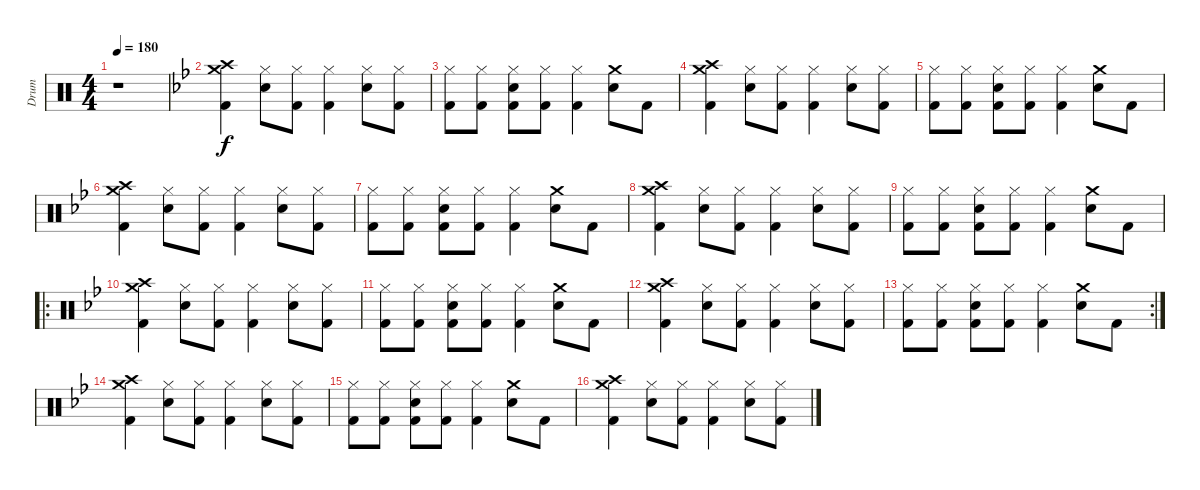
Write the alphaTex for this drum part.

\track ("Drum" "Drum") {instrument percussion}
\staff {score}
\articulation defaults
\ts (4 4)
\tempo 180
\clef neutral
\ks c
r.1{dy f} |
\ks bb
("Crash medium (hit)" "Crash high (hit)" "Kick (hit) 2").4 ("Hi-Hat (closed)" "Electric Snare (hit)").8 ("Hi-Hat (closed)" "Kick (hit) 2").8 ("Hi-Hat (closed)" "Kick (hit) 2").4 ("Hi-Hat (closed)" "Electric Snare (hit)").8 ("Hi-Hat (closed)" "Kick (hit) 2").8 |
("Hi-Hat (closed)" "Kick (hit) 2").8 ("Hi-Hat (closed)" "Kick (hit) 2").8 ("Hi-Hat (closed)" "Kick (hit) 2" "Electric Snare (hit)").8 ("Hi-Hat (closed)" "Kick (hit) 2").8 ("Hi-Hat (closed)" "Kick (hit) 2").4 ("Crash medium (hit)" "Electric Snare (hit)").8 "Kick (hit) 2".8 |
("Crash medium (hit)" "Crash high (hit)" "Kick (hit) 2").4 ("Hi-Hat (closed)" "Electric Snare (hit)").8 ("Hi-Hat (closed)" "Kick (hit) 2").8 ("Hi-Hat (closed)" "Kick (hit) 2").4 ("Hi-Hat (closed)" "Electric Snare (hit)").8 ("Hi-Hat (closed)" "Kick (hit) 2").8 |
("Hi-Hat (closed)" "Kick (hit) 2").8 ("Hi-Hat (closed)" "Kick (hit) 2").8 ("Hi-Hat (closed)" "Kick (hit) 2" "Electric Snare (hit)").8 ("Hi-Hat (closed)" "Kick (hit) 2").8 ("Hi-Hat (closed)" "Kick (hit) 2").4 ("Crash medium (hit)" "Electric Snare (hit)").8 "Kick (hit) 2".8 |
("Crash medium (hit)" "Crash high (hit)" "Kick (hit) 2").4 ("Hi-Hat (closed)" "Electric Snare (hit)").8 ("Hi-Hat (closed)" "Kick (hit) 2").8 ("Hi-Hat (closed)" "Kick (hit) 2").4 ("Hi-Hat (closed)" "Electric Snare (hit)").8 ("Hi-Hat (closed)" "Kick (hit) 2").8 |
("Hi-Hat (closed)" "Kick (hit) 2").8 ("Hi-Hat (closed)" "Kick (hit) 2").8 ("Hi-Hat (closed)" "Kick (hit) 2" "Electric Snare (hit)").8 ("Hi-Hat (closed)" "Kick (hit) 2").8 ("Hi-Hat (closed)" "Kick (hit) 2").4 ("Crash medium (hit)" "Electric Snare (hit)").8 "Kick (hit) 2".8 |
("Crash medium (hit)" "Crash high (hit)" "Kick (hit) 2").4 ("Hi-Hat (closed)" "Electric Snare (hit)").8 ("Hi-Hat (closed)" "Kick (hit) 2").8 ("Hi-Hat (closed)" "Kick (hit) 2").4 ("Hi-Hat (closed)" "Electric Snare (hit)").8 ("Hi-Hat (closed)" "Kick (hit) 2").8 |
("Hi-Hat (closed)" "Kick (hit) 2").8 ("Hi-Hat (closed)" "Kick (hit) 2").8 ("Hi-Hat (closed)" "Kick (hit) 2" "Electric Snare (hit)").8 ("Hi-Hat (closed)" "Kick (hit) 2").8 ("Hi-Hat (closed)" "Kick (hit) 2").4 ("Crash medium (hit)" "Electric Snare (hit)").8 "Kick (hit) 2".8 |
\ro
("Crash medium (hit)" "Crash high (hit)" "Kick (hit) 2").4 ("Hi-Hat (closed)" "Electric Snare (hit)").8 ("Hi-Hat (closed)" "Kick (hit) 2").8 ("Hi-Hat (closed)" "Kick (hit) 2").4 ("Hi-Hat (closed)" "Electric Snare (hit)").8 ("Hi-Hat (closed)" "Kick (hit) 2").8 |
("Hi-Hat (closed)" "Kick (hit) 2").8 ("Hi-Hat (closed)" "Kick (hit) 2").8 ("Hi-Hat (closed)" "Kick (hit) 2" "Electric Snare (hit)").8 ("Hi-Hat (closed)" "Kick (hit) 2").8 ("Hi-Hat (closed)" "Kick (hit) 2").4 ("Crash medium (hit)" "Electric Snare (hit)").8 "Kick (hit) 2".8 |
("Crash medium (hit)" "Crash high (hit)" "Kick (hit) 2").4 ("Hi-Hat (closed)" "Electric Snare (hit)").8 ("Hi-Hat (closed)" "Kick (hit) 2").8 ("Hi-Hat (closed)" "Kick (hit) 2").4 ("Hi-Hat (closed)" "Electric Snare (hit)").8 ("Hi-Hat (closed)" "Kick (hit) 2").8 |
\rc 2
("Hi-Hat (closed)" "Kick (hit) 2").8 ("Hi-Hat (closed)" "Kick (hit) 2").8 ("Hi-Hat (closed)" "Kick (hit) 2" "Electric Snare (hit)").8 ("Hi-Hat (closed)" "Kick (hit) 2").8 ("Hi-Hat (closed)" "Kick (hit) 2").4 ("Crash medium (hit)" "Electric Snare (hit)").8 "Kick (hit) 2".8 |
("Crash medium (hit)" "Crash high (hit)" "Kick (hit) 2").4 ("Hi-Hat (closed)" "Electric Snare (hit)").8 ("Hi-Hat (closed)" "Kick (hit) 2").8 ("Hi-Hat (closed)" "Kick (hit) 2").4 ("Hi-Hat (closed)" "Electric Snare (hit)").8 ("Hi-Hat (closed)" "Kick (hit) 2").8 |
("Hi-Hat (closed)" "Kick (hit) 2").8 ("Hi-Hat (closed)" "Kick (hit) 2").8 ("Hi-Hat (closed)" "Kick (hit) 2" "Electric Snare (hit)").8 ("Hi-Hat (closed)" "Kick (hit) 2").8 ("Hi-Hat (closed)" "Kick (hit) 2").4 ("Crash medium (hit)" "Electric Snare (hit)").8 "Kick (hit) 2".8 |
("Crash medium (hit)" "Crash high (hit)" "Kick (hit) 2").4 ("Hi-Hat (closed)" "Electric Snare (hit)").8 ("Hi-Hat (closed)" "Kick (hit) 2").8 ("Hi-Hat (closed)" "Kick (hit) 2").4 ("Hi-Hat (closed)" "Electric Snare (hit)").8 ("Hi-Hat (closed)" "Kick (hit) 2").8
